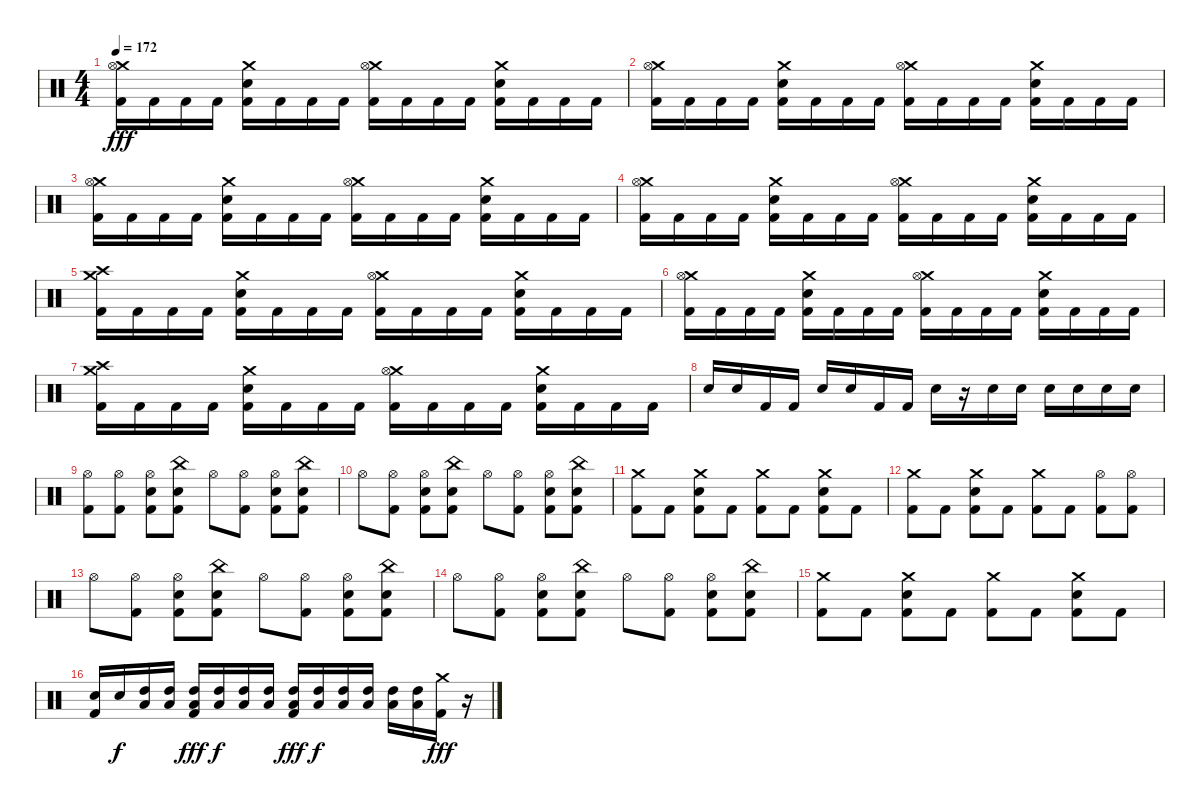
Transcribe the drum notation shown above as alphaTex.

\track (" " " ") {instrument percussion}
\staff {score}
\articulation defaults
\ts (4 4)
\tempo 172
\clef neutral
\ks c
("Crash medium (hit)" "Hi-Hat (open)" "Kick (hit) 2").16{dy fff} "Kick (hit) 2".16 "Kick (hit) 2".16 "Kick (hit) 2".16 ("Crash medium (hit)" "Snare (hit) 2" "Kick (hit) 2").16 "Kick (hit) 2".16 "Kick (hit) 2".16 "Kick (hit) 2".16 ("Crash medium (hit)" "Hi-Hat (open)" "Kick (hit) 2").16 "Kick (hit) 2".16 "Kick (hit) 2".16 "Kick (hit) 2".16 ("Crash medium (hit)" "Snare (hit) 2" "Kick (hit) 2").16 "Kick (hit) 2".16 "Kick (hit) 2".16 "Kick (hit) 2".16 |
("Crash medium (hit)" "Hi-Hat (open)" "Kick (hit) 2").16 "Kick (hit) 2".16 "Kick (hit) 2".16 "Kick (hit) 2".16 ("Crash medium (hit)" "Snare (hit) 2" "Kick (hit) 2").16 "Kick (hit) 2".16 "Kick (hit) 2".16 "Kick (hit) 2".16 ("Crash medium (hit)" "Hi-Hat (open)" "Kick (hit) 2").16 "Kick (hit) 2".16 "Kick (hit) 2".16 "Kick (hit) 2".16 ("Crash medium (hit)" "Snare (hit) 2" "Kick (hit) 2").16 "Kick (hit) 2".16 "Kick (hit) 2".16 "Kick (hit) 2".16 |
("Crash medium (hit)" "Hi-Hat (open)" "Kick (hit) 2").16 "Kick (hit) 2".16 "Kick (hit) 2".16 "Kick (hit) 2".16 ("Crash medium (hit)" "Snare (hit) 2" "Kick (hit) 2").16 "Kick (hit) 2".16 "Kick (hit) 2".16 "Kick (hit) 2".16 ("Crash medium (hit)" "Hi-Hat (open)" "Kick (hit) 2").16 "Kick (hit) 2".16 "Kick (hit) 2".16 "Kick (hit) 2".16 ("Crash medium (hit)" "Snare (hit) 2" "Kick (hit) 2").16 "Kick (hit) 2".16 "Kick (hit) 2".16 "Kick (hit) 2".16 |
("Crash medium (hit)" "Hi-Hat (open)" "Kick (hit) 2").16 "Kick (hit) 2".16 "Kick (hit) 2".16 "Kick (hit) 2".16 ("Crash medium (hit)" "Snare (hit) 2" "Kick (hit) 2").16 "Kick (hit) 2".16 "Kick (hit) 2".16 "Kick (hit) 2".16 ("Crash medium (hit)" "Hi-Hat (open)" "Kick (hit) 2").16 "Kick (hit) 2".16 "Kick (hit) 2".16 "Kick (hit) 2".16 ("Crash medium (hit)" "Snare (hit) 2" "Kick (hit) 2").16 "Kick (hit) 2".16 "Kick (hit) 2".16 "Kick (hit) 2".16 |
("Crash medium (hit)" "Crash high (hit)" "Kick (hit) 2").16 "Kick (hit) 2".16 "Kick (hit) 2".16 "Kick (hit) 2".16 ("Crash medium (hit)" "Snare (hit) 2" "Kick (hit) 2").16 "Kick (hit) 2".16 "Kick (hit) 2".16 "Kick (hit) 2".16 ("Crash medium (hit)" "Hi-Hat (open)" "Kick (hit) 2").16 "Kick (hit) 2".16 "Kick (hit) 2".16 "Kick (hit) 2".16 ("Crash medium (hit)" "Snare (hit) 2" "Kick (hit) 2").16 "Kick (hit) 2".16 "Kick (hit) 2".16 "Kick (hit) 2".16 |
("Crash medium (hit)" "Hi-Hat (open)" "Kick (hit) 2").16 "Kick (hit) 2".16 "Kick (hit) 2".16 "Kick (hit) 2".16 ("Crash medium (hit)" "Snare (hit) 2" "Kick (hit) 2").16 "Kick (hit) 2".16 "Kick (hit) 2".16 "Kick (hit) 2".16 ("Crash medium (hit)" "Hi-Hat (open)" "Kick (hit) 2").16 "Kick (hit) 2".16 "Kick (hit) 2".16 "Kick (hit) 2".16 ("Crash medium (hit)" "Snare (hit) 2" "Kick (hit) 2").16 "Kick (hit) 2".16 "Kick (hit) 2".16 "Kick (hit) 2".16 |
("Crash medium (hit)" "Crash high (hit)" "Kick (hit) 2").16 "Kick (hit) 2".16 "Kick (hit) 2".16 "Kick (hit) 2".16 ("Crash medium (hit)" "Snare (hit) 2" "Kick (hit) 2").16 "Kick (hit) 2".16 "Kick (hit) 2".16 "Kick (hit) 2".16 ("Crash medium (hit)" "Hi-Hat (open)" "Kick (hit) 2").16 "Kick (hit) 2".16 "Kick (hit) 2".16 "Kick (hit) 2".16 ("Crash medium (hit)" "Snare (hit) 2" "Kick (hit) 2").16 "Kick (hit) 2".16 "Kick (hit) 2".16 "Kick (hit) 2".16 |
"Snare (hit) 2".16 "Snare (hit) 2".16 "Kick (hit) 2".16 "Kick (hit) 2".16 "Snare (hit) 2".16 "Snare (hit) 2".16 "Kick (hit) 2".16 "Kick (hit) 2".16 "Snare (hit) 2".16 r.16 "Snare (hit) 2".16 "Snare (hit) 2".16 "Snare (hit) 2".16 "Snare (hit) 2".16 "Snare (hit) 2".16 "Snare (hit) 2".16 |
("Hi-Hat (open)" "Kick (hit) 2").8 ("Hi-Hat (open)" "Kick (hit) 2").8 ("Hi-Hat (open)" "Snare (hit) 2" "Kick (hit) 2").8 ("China (hit)" "Snare (hit) 2" "Kick (hit) 2").8 "Hi-Hat (open)".8 ("Hi-Hat (open)" "Kick (hit) 2").8 ("Hi-Hat (open)" "Snare (hit) 2" "Kick (hit) 2").8 ("China (hit)" "Snare (hit) 2" "Kick (hit) 2").8 |
"Hi-Hat (open)".8 ("Hi-Hat (open)" "Kick (hit) 2").8 ("Hi-Hat (open)" "Snare (hit) 2" "Kick (hit) 2").8 ("China (hit)" "Snare (hit) 2" "Kick (hit) 2").8 "Hi-Hat (open)".8 ("Hi-Hat (open)" "Kick (hit) 2").8 ("Hi-Hat (open)" "Snare (hit) 2" "Kick (hit) 2").8 ("China (hit)" "Snare (hit) 2" "Kick (hit) 2").8 |
("Crash medium (hit)" "Kick (hit) 2").8 "Kick (hit) 2".8 ("Crash medium (hit)" "Snare (hit) 2" "Kick (hit) 2").8 "Kick (hit) 2".8 ("Crash medium (hit)" "Kick (hit) 2").8 "Kick (hit) 2".8 ("Crash medium (hit)" "Snare (hit) 2" "Kick (hit) 2").8 "Kick (hit) 2".8 |
("Crash medium (hit)" "Kick (hit) 2").8 "Kick (hit) 2".8 ("Crash medium (hit)" "Snare (hit) 2" "Kick (hit) 2").8 "Kick (hit) 2".8 ("Crash medium (hit)" "Kick (hit) 2").8 "Kick (hit) 2".8 ("Hi-Hat (open)" "Kick (hit) 2").8 ("Hi-Hat (open)" "Kick (hit) 2").8 |
"Hi-Hat (open)".8 ("Hi-Hat (open)" "Kick (hit) 2").8 ("Hi-Hat (open)" "Snare (hit) 2" "Kick (hit) 2").8 ("China (hit)" "Snare (hit) 2" "Kick (hit) 2").8 "Hi-Hat (open)".8 ("Hi-Hat (open)" "Kick (hit) 2").8 ("Hi-Hat (open)" "Snare (hit) 2" "Kick (hit) 2").8 ("China (hit)" "Snare (hit) 2" "Kick (hit) 2").8 |
"Hi-Hat (open)".8 ("Hi-Hat (open)" "Kick (hit) 2").8 ("Hi-Hat (open)" "Snare (hit) 2" "Kick (hit) 2").8 ("China (hit)" "Snare (hit) 2" "Kick (hit) 2").8 "Hi-Hat (open)".8 ("Hi-Hat (open)" "Kick (hit) 2").8 ("Hi-Hat (open)" "Snare (hit) 2" "Kick (hit) 2").8 ("China (hit)" "Snare (hit) 2" "Kick (hit) 2").8 |
("Crash medium (hit)" "Kick (hit) 2").8 "Kick (hit) 2".8 ("Crash medium (hit)" "Snare (hit) 2" "Kick (hit) 2").8 "Kick (hit) 2".8 ("Crash medium (hit)" "Kick (hit) 2").8 "Kick (hit) 2".8 ("Crash medium (hit)" "Snare (hit) 2" "Kick (hit) 2").8 "Kick (hit) 2".8 |
("Snare (hit) 2" "Kick (hit) 2").16 "Snare (hit) 2".16{dy f} ("High Tom (hit)" "Low Tom (hit)").16 ("High Tom (hit)" "Low Tom (hit)").16 ("High Tom (hit)" "Low Tom (hit)" "Kick (hit) 2").16{dy fff} ("High Tom (hit)" "Low Tom (hit)").16{dy f} ("High Tom (hit)" "Low Floor Tom (hit)").16 ("High Tom (hit)" "Low Floor Tom (hit)").16 ("High Tom (hit)" "Low Floor Tom (hit)" "Kick (hit) 2").16{dy fff} ("High Tom (hit)" "Low Floor Tom (hit)").16{dy f} ("High Tom (hit)" "Low Floor Tom (hit)").16 ("High Tom (hit)" "Low Floor Tom (hit)").16 ("High Tom (hit)" "Low Floor Tom (hit)").16 ("High Tom (hit)" "Low Floor Tom (hit)").16 ("Crash medium (hit)" "Kick (hit) 2").16{dy fff} r.16
